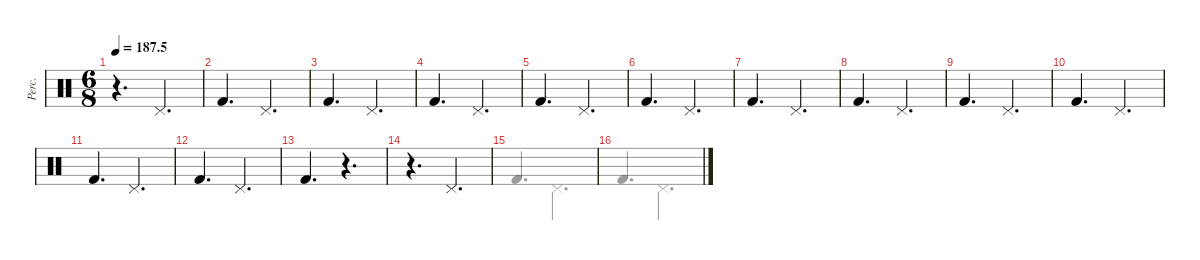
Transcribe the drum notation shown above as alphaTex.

\defaultSystemsLayout 4
\hideDynamics
\bracketExtendMode groupsimilarinstruments
\otherSystemsTrackNameOrientation horizontal
\track ("Percussions" "Perc.") {instrument percussion}
\staff {score}
\articulation defaults
\voice
\ts (6 8)
\tempo
187.5
\accidentals auto
\clef neutral
\ottava regular
\simile none
\ks c
r.4{d dy mf beam Down} "Pedal Hi-Hat (hit)".4{d beam Up} |
"Kick (hit) 2".4{d beam Up} "Pedal Hi-Hat (hit)".4{d beam Up} |
"Kick (hit) 2".4{d beam Up} "Pedal Hi-Hat (hit)".4{d beam Up} |
"Kick (hit) 2".4{d beam Up} "Pedal Hi-Hat (hit)".4{d beam Up} |
"Kick (hit) 2".4{d beam Up} "Pedal Hi-Hat (hit)".4{d beam Up} |
"Kick (hit) 2".4{d beam Up} "Pedal Hi-Hat (hit)".4{d beam Up} |
"Kick (hit) 2".4{d beam Up} "Pedal Hi-Hat (hit)".4{d beam Up} |
"Kick (hit) 2".4{d beam Up} "Pedal Hi-Hat (hit)".4{d beam Up} |
"Kick (hit) 2".4{d beam Up} "Pedal Hi-Hat (hit)".4{d beam Up} |
"Kick (hit) 2".4{d beam Up} "Pedal Hi-Hat (hit)".4{d beam Up} |
"Kick (hit) 2".4{d beam Up} "Pedal Hi-Hat (hit)".4{d beam Up} |
"Kick (hit) 2".4{d beam Up} "Pedal Hi-Hat (hit)".4{d beam Up} |
"Kick (hit) 2".4{d beam Up} r.4{d beam Up} |
r.4{d beam Down} "Pedal Hi-Hat (hit)".4{d beam Up} |
|
\voice
\clef neutral
\ottava regular
\simile none
\ks c
|
|
|
|
|
|
|
|
|
|
|
|
|
|
"Kick (hit) 2".4{d beam Up} "Pedal Hi-Hat (hit)".4{d beam Down} |
"Kick (hit) 2".4{d beam Up} "Pedal Hi-Hat (hit)".4{d beam Down}
